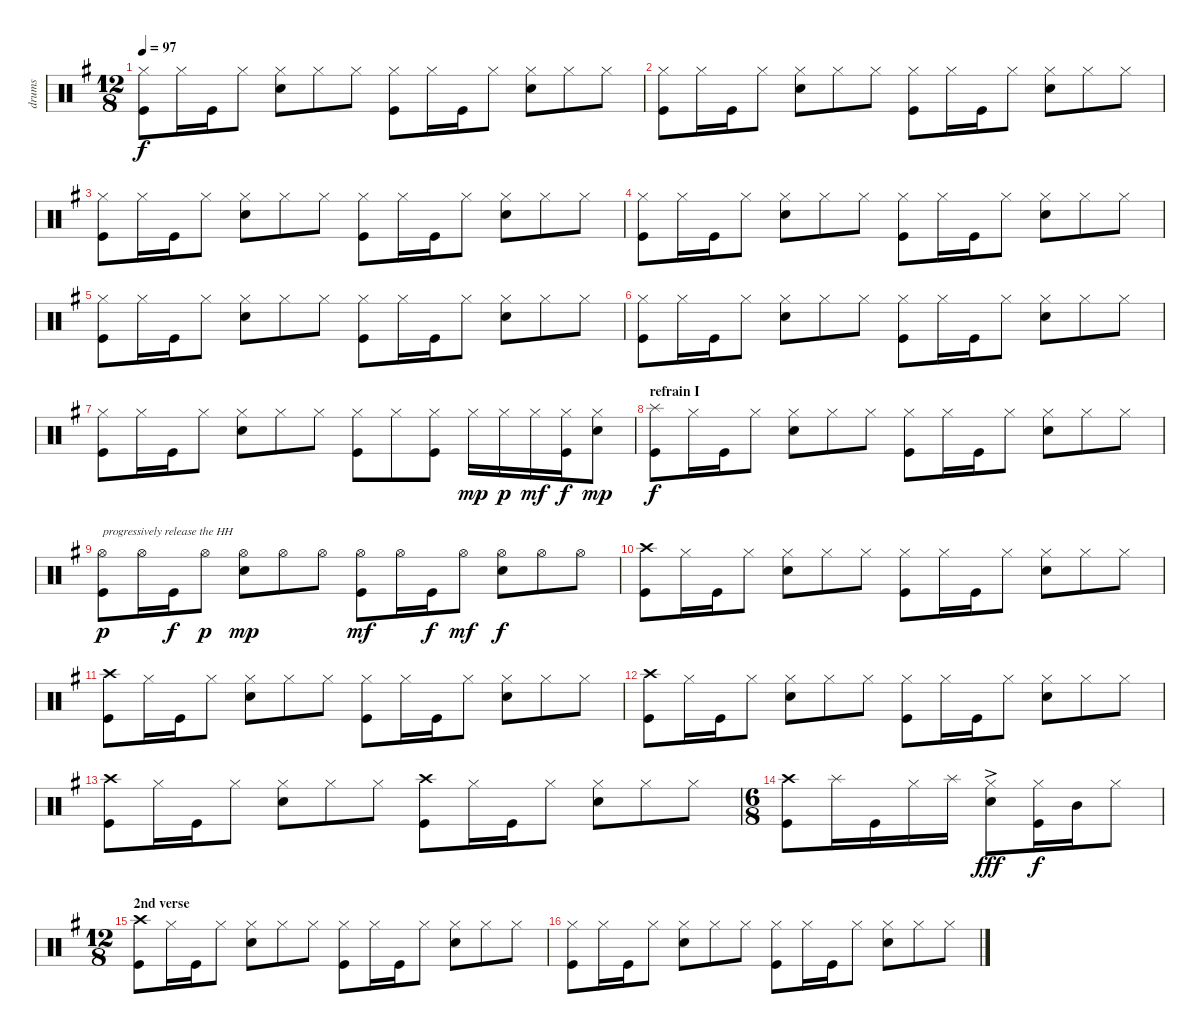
\track ("drums" "drums") {instrument percussion}
\staff {score}
\articulation defaults
\ts (12 8)
\tempo 97
\clef neutral
\ks g
("Hi-Hat (closed)" "Kick (hit)").8{dy f} "Hi-Hat (closed)".16 "Kick (hit)".16 "Hi-Hat (closed)".8 ("Hi-Hat (closed)" "Electric Snare (hit)").8 "Hi-Hat (closed)".8 "Hi-Hat (closed)".8 ("Hi-Hat (closed)" "Kick (hit)").8 "Hi-Hat (closed)".16 "Kick (hit)".16 "Hi-Hat (closed)".8 ("Hi-Hat (closed)" "Electric Snare (hit)").8 "Hi-Hat (closed)".8 "Hi-Hat (closed)".8 |
("Hi-Hat (closed)" "Kick (hit)").8 "Hi-Hat (closed)".16 "Kick (hit)".16 "Hi-Hat (closed)".8 ("Hi-Hat (closed)" "Electric Snare (hit)").8 "Hi-Hat (closed)".8 "Hi-Hat (closed)".8 ("Hi-Hat (closed)" "Kick (hit)").8 "Hi-Hat (closed)".16 "Kick (hit)".16 "Hi-Hat (closed)".8 ("Hi-Hat (closed)" "Electric Snare (hit)").8 "Hi-Hat (closed)".8 "Hi-Hat (closed)".8 |
("Hi-Hat (closed)" "Kick (hit)").8 "Hi-Hat (closed)".16 "Kick (hit)".16 "Hi-Hat (closed)".8 ("Hi-Hat (closed)" "Electric Snare (hit)").8 "Hi-Hat (closed)".8 "Hi-Hat (closed)".8 ("Hi-Hat (closed)" "Kick (hit)").8 "Hi-Hat (closed)".16 "Kick (hit)".16 "Hi-Hat (closed)".8 ("Hi-Hat (closed)" "Electric Snare (hit)").8 "Hi-Hat (closed)".8 "Hi-Hat (closed)".8 |
("Hi-Hat (closed)" "Kick (hit)").8 "Hi-Hat (closed)".16 "Kick (hit)".16 "Hi-Hat (closed)".8 ("Hi-Hat (closed)" "Electric Snare (hit)").8 "Hi-Hat (closed)".8 "Hi-Hat (closed)".8 ("Hi-Hat (closed)" "Kick (hit)").8 "Hi-Hat (closed)".16 "Kick (hit)".16 "Hi-Hat (closed)".8 ("Hi-Hat (closed)" "Electric Snare (hit)").8 "Hi-Hat (closed)".8 "Hi-Hat (closed)".8 |
("Hi-Hat (closed)" "Kick (hit)").8 "Hi-Hat (closed)".16 "Kick (hit)".16 "Hi-Hat (closed)".8 ("Hi-Hat (closed)" "Electric Snare (hit)").8 "Hi-Hat (closed)".8 "Hi-Hat (closed)".8 ("Hi-Hat (closed)" "Kick (hit)").8 "Hi-Hat (closed)".16 "Kick (hit)".16 "Hi-Hat (closed)".8 ("Hi-Hat (closed)" "Electric Snare (hit)").8 "Hi-Hat (closed)".8 "Hi-Hat (closed)".8 |
("Hi-Hat (closed)" "Kick (hit)").8 "Hi-Hat (closed)".16 "Kick (hit)".16 "Hi-Hat (closed)".8 ("Hi-Hat (closed)" "Electric Snare (hit)").8 "Hi-Hat (closed)".8 "Hi-Hat (closed)".8 ("Hi-Hat (closed)" "Kick (hit)").8 "Hi-Hat (closed)".16 "Kick (hit)".16 "Hi-Hat (closed)".8 ("Hi-Hat (closed)" "Electric Snare (hit)").8 "Hi-Hat (closed)".8 "Hi-Hat (closed)".8 |
("Hi-Hat (closed)" "Kick (hit)").8 "Hi-Hat (closed)".16 "Kick (hit)".16 "Hi-Hat (closed)".8 ("Hi-Hat (closed)" "Electric Snare (hit)").8 "Hi-Hat (closed)".8 "Hi-Hat (closed)".8 ("Hi-Hat (closed)" "Kick (hit)").8 "Hi-Hat (closed)".8 ("Hi-Hat (closed)" "Kick (hit)").8 "Hi-Hat (closed)".16{dy mp} "Hi-Hat (closed)".16{dy p} "Hi-Hat (closed)".16{dy mf} ("Hi-Hat (closed)" "Kick (hit)").16{dy f} ("Hi-Hat (closed)" "Electric Snare (hit)").8{dy mp} |
\section ("" "refrain I")
("Splash (hit)" "Kick (hit)").8{dy f} "Hi-Hat (closed)".16 "Kick (hit)".16 "Hi-Hat (closed)".8 ("Hi-Hat (closed)" "Electric Snare (hit)").8 "Hi-Hat (closed)".8 "Hi-Hat (closed)".8 ("Hi-Hat (closed)" "Kick (hit)").8 "Hi-Hat (closed)".16 "Kick (hit)".16 "Hi-Hat (closed)".8 ("Hi-Hat (closed)" "Electric Snare (hit)").8 "Hi-Hat (closed)".8 "Hi-Hat (closed)".8 |
("Hi-Hat (open)" "Kick (hit)").8{txt "progressively release the HH" dy p} "Hi-Hat (open)".16 "Kick (hit)".16{dy f} "Hi-Hat (open)".8{dy p} ("Hi-Hat (open)" "Electric Snare (hit)").8{dy mp} "Hi-Hat (open)".8 "Hi-Hat (open)".8 ("Hi-Hat (open)" "Kick (hit)").8{dy mf} "Hi-Hat (open)".16 "Kick (hit)".16{dy f} "Hi-Hat (open)".8{dy mf} ("Hi-Hat (open)" "Electric Snare (hit)").8{dy f} "Hi-Hat (open)".8 "Hi-Hat (open)".8 |
("Crash high (hit)" "Kick (hit)").8 "Hi-Hat (closed)".16 "Kick (hit)".16 "Hi-Hat (closed)".8 ("Hi-Hat (closed)" "Electric Snare (hit)").8 "Hi-Hat (closed)".8 "Hi-Hat (closed)".8 ("Hi-Hat (closed)" "Kick (hit)").8 "Hi-Hat (closed)".16 "Kick (hit)".16 "Hi-Hat (closed)".8 ("Hi-Hat (closed)" "Electric Snare (hit)").8 "Hi-Hat (closed)".8 "Hi-Hat (closed)".8 |
("Crash high (hit)" "Kick (hit)").8 "Hi-Hat (closed)".16 "Kick (hit)".16 "Hi-Hat (closed)".8 ("Hi-Hat (closed)" "Electric Snare (hit)").8 "Hi-Hat (closed)".8 "Hi-Hat (closed)".8 ("Hi-Hat (closed)" "Kick (hit)").8 "Hi-Hat (closed)".16 "Kick (hit)".16 "Hi-Hat (closed)".8 ("Hi-Hat (closed)" "Electric Snare (hit)").8 "Hi-Hat (closed)".8 "Hi-Hat (closed)".8 |
("Crash high (hit)" "Kick (hit)").8 "Hi-Hat (closed)".16 "Kick (hit)".16 "Hi-Hat (closed)".8 ("Hi-Hat (closed)" "Electric Snare (hit)").8 "Hi-Hat (closed)".8 "Hi-Hat (closed)".8 ("Hi-Hat (closed)" "Kick (hit)").8 "Hi-Hat (closed)".16 "Kick (hit)".16 "Hi-Hat (closed)".8 ("Hi-Hat (closed)" "Electric Snare (hit)").8 "Hi-Hat (closed)".8 "Hi-Hat (closed)".8 |
("Crash high (hit)" "Kick (hit)").8 "Hi-Hat (closed)".16 "Kick (hit)".16 "Hi-Hat (closed)".8 ("Hi-Hat (closed)" "Electric Snare (hit)").8 "Hi-Hat (closed)".8 "Hi-Hat (closed)".8 ("Crash high (hit)" "Kick (hit)").8 "Hi-Hat (closed)".16 "Kick (hit)".16 "Hi-Hat (closed)".8 ("Hi-Hat (closed)" "Electric Snare (hit)").8 "Hi-Hat (closed)".8 "Hi-Hat (closed)".8 |
\ts (6 8)
("Crash high (hit)" "Kick (hit)").8 "Splash (hit)".16 "Kick (hit)".16 "Hi-Hat (closed)".16 "Splash (hit)".16 ("Hi-Hat (closed)" "Electric Snare (hit)"{ac}).8{dy fff} ("Hi-Hat (closed)" "Kick (hit)").16{dy f} "Mid Tom (hit)".16 "Hi-Hat (closed)".8 |
\ts (12 8)
\section ("" "2nd verse")
("Crash high (hit)" "Kick (hit)").8 "Hi-Hat (closed)".16 "Kick (hit)".16 "Hi-Hat (closed)".8 ("Hi-Hat (closed)" "Electric Snare (hit)").8 "Hi-Hat (closed)".8 "Hi-Hat (closed)".8 ("Hi-Hat (closed)" "Kick (hit)").8 "Hi-Hat (closed)".16 "Kick (hit)".16 "Hi-Hat (closed)".8 ("Hi-Hat (closed)" "Electric Snare (hit)").8 "Hi-Hat (closed)".8 "Hi-Hat (closed)".8 |
("Hi-Hat (closed)" "Kick (hit)").8 "Hi-Hat (closed)".16 "Kick (hit)".16 "Hi-Hat (closed)".8 ("Hi-Hat (closed)" "Electric Snare (hit)").8 "Hi-Hat (closed)".8 "Hi-Hat (closed)".8 ("Hi-Hat (closed)" "Kick (hit)").8 "Hi-Hat (closed)".16 "Kick (hit)".16 "Hi-Hat (closed)".8 ("Hi-Hat (closed)" "Electric Snare (hit)").8 "Hi-Hat (closed)".8 "Hi-Hat (closed)".8
